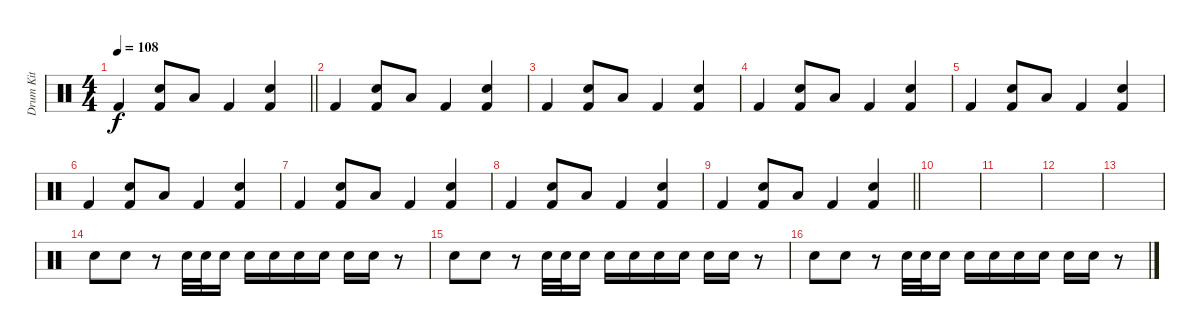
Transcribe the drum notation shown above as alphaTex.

\track ("Drum Kit" "Drum Kit") {instrument percussion}
\staff {score}
\articulation defaults
\ts (4 4)
\tempo 108
\clef neutral
\barLineRight lightlight
\ks c "Kick (hit) 2".4{dy f}
("Electric Snare (hit)" "Kick (hit) 2").8 "Low Floor Tom (hit)".8 "Kick (hit) 2".4 ("Electric Snare (hit)" "Kick (hit) 2").4 |
\section ("" "")
"Kick (hit) 2".4 ("Electric Snare (hit)" "Kick (hit) 2").8 "Low Floor Tom (hit)".8 "Kick (hit) 2".4 ("Electric Snare (hit)" "Kick (hit) 2").4 |
"Kick (hit) 2".4 ("Electric Snare (hit)" "Kick (hit) 2").8 "Low Floor Tom (hit)".8 "Kick (hit) 2".4 ("Electric Snare (hit)" "Kick (hit) 2").4 |
"Kick (hit) 2".4 ("Electric Snare (hit)" "Kick (hit) 2").8 "Low Floor Tom (hit)".8 "Kick (hit) 2".4 ("Electric Snare (hit)" "Kick (hit) 2").4 |
"Kick (hit) 2".4 ("Electric Snare (hit)" "Kick (hit) 2").8 "Low Floor Tom (hit)".8 "Kick (hit) 2".4 ("Electric Snare (hit)" "Kick (hit) 2").4 |
"Kick (hit) 2".4 ("Electric Snare (hit)" "Kick (hit) 2").8 "Low Floor Tom (hit)".8 "Kick (hit) 2".4 ("Electric Snare (hit)" "Kick (hit) 2").4 |
"Kick (hit) 2".4 ("Electric Snare (hit)" "Kick (hit) 2").8 "Low Floor Tom (hit)".8 "Kick (hit) 2".4 ("Electric Snare (hit)" "Kick (hit) 2").4 |
"Kick (hit) 2".4 ("Electric Snare (hit)" "Kick (hit) 2").8 "Low Floor Tom (hit)".8 "Kick (hit) 2".4 ("Electric Snare (hit)" "Kick (hit) 2").4 |
\barLineRight lightlight "Kick (hit) 2".4
("Electric Snare (hit)" "Kick (hit) 2").8 "Low Floor Tom (hit)".8 "Kick (hit) 2".4 ("Electric Snare (hit)" "Kick (hit) 2").4 |
\section ("" "")
|
|
|
|
"Snare (hit) 2".8 "Snare (hit) 2".8 r.8 "Electric Snare (hit)".32 "Electric Snare (hit)".32 "Electric Snare (hit)".16 "Electric Snare (hit)".16 "Electric Snare (hit)".16 "Electric Snare (hit)".16 "Electric Snare (hit)".16 "Electric Snare (hit)".16 "Electric Snare (hit)".16 r.8 |
"Snare (hit) 2".8 "Snare (hit) 2".8 r.8 "Electric Snare (hit)".32 "Electric Snare (hit)".32 "Electric Snare (hit)".16 "Electric Snare (hit)".16 "Electric Snare (hit)".16 "Electric Snare (hit)".16 "Electric Snare (hit)".16 "Electric Snare (hit)".16 "Electric Snare (hit)".16 r.8 |
"Snare (hit) 2".8 "Snare (hit) 2".8 r.8 "Electric Snare (hit)".32 "Electric Snare (hit)".32 "Electric Snare (hit)".16 "Electric Snare (hit)".16 "Electric Snare (hit)".16 "Electric Snare (hit)".16 "Electric Snare (hit)".16 "Electric Snare (hit)".16 "Electric Snare (hit)".16 r.8
